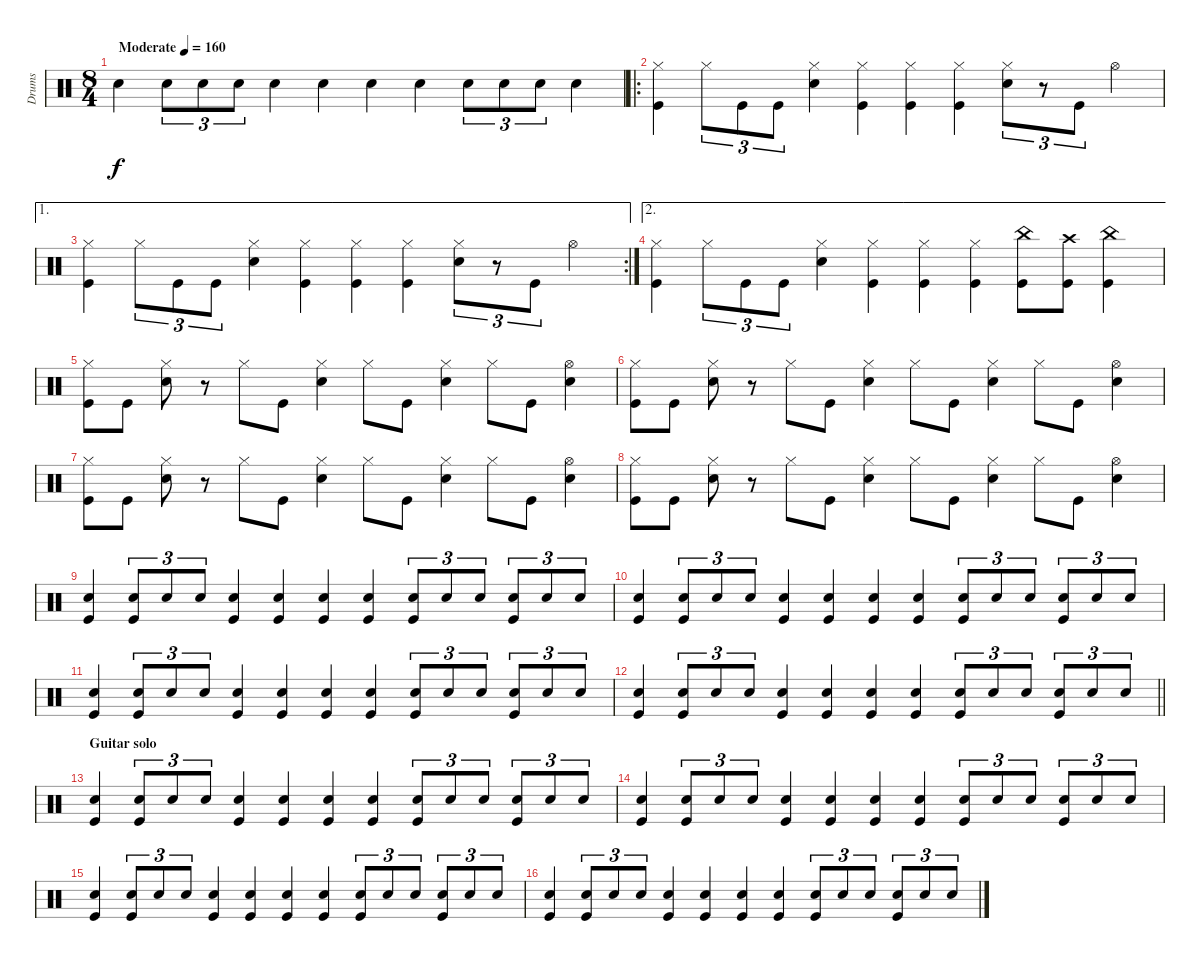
\track ("Drums" "Drums") {instrument percussion}
\staff {score}
\articulation defaults
\ts (8 4)
\tempo (160 "Moderate")
\clef neutral
\ks c "Snare (hit) 2".4{dy f} "Snare (hit) 2".8{tu (3 2)} "Snare (hit) 2".8{tu (3 2)} "Snare (hit) 2".8{tu (3 2)} "Snare (hit) 2".4 "Snare (hit) 2".4 "Snare (hit) 2".4 "Snare (hit) 2".4 "Snare (hit) 2".8{tu (3 2)} "Snare (hit) 2".8{tu (3 2)} "Snare (hit) 2".8{tu (3 2)} "Snare (hit) 2".4
|
\ro
("Kick (hit)" "Hi-Hat (closed)").4 "Hi-Hat (closed)".8{tu (3 2)} "Kick (hit)".8{tu (3 2)} "Kick (hit)".8{tu (3 2)} ("Hi-Hat (closed)" "Snare (hit) 2").4 ("Hi-Hat (closed)" "Kick (hit)").4 ("Kick (hit)" "Hi-Hat (closed)").4 ("Hi-Hat (closed)" "Kick (hit)").4 ("Hi-Hat (closed)" "Snare (hit) 2").8{tu (3 2)} r.8{tu (3 2)} "Kick (hit)".8{tu (3 2)} "Hi-Hat (open)".4 |
\ae 1
\rc 2
("Kick (hit)" "Hi-Hat (closed)").4 "Hi-Hat (closed)".8{tu (3 2)} "Kick (hit)".8{tu (3 2)} "Kick (hit)".8{tu (3 2)} ("Hi-Hat (closed)" "Snare (hit) 2").4 ("Hi-Hat (closed)" "Kick (hit)").4 ("Kick (hit)" "Hi-Hat (closed)").4 ("Hi-Hat (closed)" "Kick (hit)").4 ("Hi-Hat (closed)" "Snare (hit) 2").8{tu (3 2)} r.8{tu (3 2)} "Kick (hit)".8{tu (3 2)} "Hi-Hat (open)".4 |
\ae 2
("Kick (hit)" "Hi-Hat (closed)").4 "Hi-Hat (closed)".8{tu (3 2)} "Kick (hit)".8{tu (3 2)} "Kick (hit)".8{tu (3 2)} ("Hi-Hat (closed)" "Snare (hit) 2").4 ("Hi-Hat (closed)" "Kick (hit)").4 ("Kick (hit)" "Hi-Hat (closed)").4 ("Hi-Hat (closed)" "Kick (hit)").4 ("China (hit)" "Kick (hit)").8 ("Crash high (hit)" "Kick (hit)").8 ("China (hit)" "Kick (hit)").4 |
("Kick (hit)" "Hi-Hat (closed)").8 "Kick (hit)".8 ("Snare (hit) 2" "Hi-Hat (closed)").8 r.8 "Hi-Hat (closed)".8 "Kick (hit)".8 ("Snare (hit) 2" "Hi-Hat (closed)").4 "Hi-Hat (closed)".8 "Kick (hit)".8 ("Snare (hit) 2" "Hi-Hat (closed)").4 "Hi-Hat (closed)".8 "Kick (hit)".8 ("Snare (hit) 2" "Hi-Hat (open)").4 |
("Kick (hit)" "Hi-Hat (closed)").8 "Kick (hit)".8 ("Snare (hit) 2" "Hi-Hat (closed)").8 r.8 "Hi-Hat (closed)".8 "Kick (hit)".8 ("Snare (hit) 2" "Hi-Hat (closed)").4 "Hi-Hat (closed)".8 "Kick (hit)".8 ("Snare (hit) 2" "Hi-Hat (closed)").4 "Hi-Hat (closed)".8 "Kick (hit)".8 ("Snare (hit) 2" "Hi-Hat (open)").4 |
("Kick (hit)" "Hi-Hat (closed)").8 "Kick (hit)".8 ("Snare (hit) 2" "Hi-Hat (closed)").8 r.8 "Hi-Hat (closed)".8 "Kick (hit)".8 ("Snare (hit) 2" "Hi-Hat (closed)").4 "Hi-Hat (closed)".8 "Kick (hit)".8 ("Snare (hit) 2" "Hi-Hat (closed)").4 "Hi-Hat (closed)".8 "Kick (hit)".8 ("Snare (hit) 2" "Hi-Hat (open)").4 |
("Kick (hit)" "Hi-Hat (closed)").8 "Kick (hit)".8 ("Snare (hit) 2" "Hi-Hat (closed)").8 r.8 "Hi-Hat (closed)".8 "Kick (hit)".8 ("Snare (hit) 2" "Hi-Hat (closed)").4 "Hi-Hat (closed)".8 "Kick (hit)".8 ("Snare (hit) 2" "Hi-Hat (closed)").4 "Hi-Hat (closed)".8 "Kick (hit)".8 ("Snare (hit) 2" "Hi-Hat (open)").4 |
("Snare (hit) 2" "Kick (hit)").4 ("Snare (hit) 2" "Kick (hit)").8{tu (3 2)} "Snare (hit) 2".8{tu (3 2)} "Snare (hit) 2".8{tu (3 2)} ("Snare (hit) 2" "Kick (hit)").4 ("Snare (hit) 2" "Kick (hit)").4 ("Snare (hit) 2" "Kick (hit)").4 ("Snare (hit) 2" "Kick (hit)").4 ("Snare (hit) 2" "Kick (hit)").8{tu (3 2)} "Snare (hit) 2".8{tu (3 2)} "Snare (hit) 2".8{tu (3 2)} ("Snare (hit) 2" "Kick (hit)").8{tu (3 2)} "Snare (hit) 2".8{tu (3 2)} "Snare (hit) 2".8{tu (3 2)} |
("Snare (hit) 2" "Kick (hit)").4 ("Snare (hit) 2" "Kick (hit)").8{tu (3 2)} "Snare (hit) 2".8{tu (3 2)} "Snare (hit) 2".8{tu (3 2)} ("Snare (hit) 2" "Kick (hit)").4 ("Snare (hit) 2" "Kick (hit)").4 ("Snare (hit) 2" "Kick (hit)").4 ("Snare (hit) 2" "Kick (hit)").4 ("Snare (hit) 2" "Kick (hit)").8{tu (3 2)} "Snare (hit) 2".8{tu (3 2)} "Snare (hit) 2".8{tu (3 2)} ("Snare (hit) 2" "Kick (hit)").8{tu (3 2)} "Snare (hit) 2".8{tu (3 2)} "Snare (hit) 2".8{tu (3 2)} |
("Snare (hit) 2" "Kick (hit)").4 ("Snare (hit) 2" "Kick (hit)").8{tu (3 2)} "Snare (hit) 2".8{tu (3 2)} "Snare (hit) 2".8{tu (3 2)} ("Snare (hit) 2" "Kick (hit)").4 ("Snare (hit) 2" "Kick (hit)").4 ("Snare (hit) 2" "Kick (hit)").4 ("Snare (hit) 2" "Kick (hit)").4 ("Snare (hit) 2" "Kick (hit)").8{tu (3 2)} "Snare (hit) 2".8{tu (3 2)} "Snare (hit) 2".8{tu (3 2)} ("Snare (hit) 2" "Kick (hit)").8{tu (3 2)} "Snare (hit) 2".8{tu (3 2)} "Snare (hit) 2".8{tu (3 2)} |
\barLineRight lightlight
("Snare (hit) 2" "Kick (hit)").4 ("Snare (hit) 2" "Kick (hit)").8{tu (3 2)} "Snare (hit) 2".8{tu (3 2)} "Snare (hit) 2".8{tu (3 2)} ("Snare (hit) 2" "Kick (hit)").4 ("Snare (hit) 2" "Kick (hit)").4 ("Snare (hit) 2" "Kick (hit)").4 ("Snare (hit) 2" "Kick (hit)").4 ("Snare (hit) 2" "Kick (hit)").8{tu (3 2)} "Snare (hit) 2".8{tu (3 2)} "Snare (hit) 2".8{tu (3 2)} ("Snare (hit) 2" "Kick (hit)").8{tu (3 2)} "Snare (hit) 2".8{tu (3 2)} "Snare (hit) 2".8{tu (3 2)} |
\section ("" "Guitar solo")
("Snare (hit) 2" "Kick (hit)").4 ("Snare (hit) 2" "Kick (hit)").8{tu (3 2)} "Snare (hit) 2".8{tu (3 2)} "Snare (hit) 2".8{tu (3 2)} ("Snare (hit) 2" "Kick (hit)").4 ("Snare (hit) 2" "Kick (hit)").4 ("Snare (hit) 2" "Kick (hit)").4 ("Snare (hit) 2" "Kick (hit)").4 ("Snare (hit) 2" "Kick (hit)").8{tu (3 2)} "Snare (hit) 2".8{tu (3 2)} "Snare (hit) 2".8{tu (3 2)} ("Snare (hit) 2" "Kick (hit)").8{tu (3 2)} "Snare (hit) 2".8{tu (3 2)} "Snare (hit) 2".8{tu (3 2)} |
("Snare (hit) 2" "Kick (hit)").4 ("Snare (hit) 2" "Kick (hit)").8{tu (3 2)} "Snare (hit) 2".8{tu (3 2)} "Snare (hit) 2".8{tu (3 2)} ("Snare (hit) 2" "Kick (hit)").4 ("Snare (hit) 2" "Kick (hit)").4 ("Snare (hit) 2" "Kick (hit)").4 ("Snare (hit) 2" "Kick (hit)").4 ("Snare (hit) 2" "Kick (hit)").8{tu (3 2)} "Snare (hit) 2".8{tu (3 2)} "Snare (hit) 2".8{tu (3 2)} ("Snare (hit) 2" "Kick (hit)").8{tu (3 2)} "Snare (hit) 2".8{tu (3 2)} "Snare (hit) 2".8{tu (3 2)} |
("Snare (hit) 2" "Kick (hit)").4 ("Snare (hit) 2" "Kick (hit)").8{tu (3 2)} "Snare (hit) 2".8{tu (3 2)} "Snare (hit) 2".8{tu (3 2)} ("Snare (hit) 2" "Kick (hit)").4 ("Snare (hit) 2" "Kick (hit)").4 ("Snare (hit) 2" "Kick (hit)").4 ("Snare (hit) 2" "Kick (hit)").4 ("Snare (hit) 2" "Kick (hit)").8{tu (3 2)} "Snare (hit) 2".8{tu (3 2)} "Snare (hit) 2".8{tu (3 2)} ("Snare (hit) 2" "Kick (hit)").8{tu (3 2)} "Snare (hit) 2".8{tu (3 2)} "Snare (hit) 2".8{tu (3 2)} |
("Snare (hit) 2" "Kick (hit)").4 ("Snare (hit) 2" "Kick (hit)").8{tu (3 2)} "Snare (hit) 2".8{tu (3 2)} "Snare (hit) 2".8{tu (3 2)} ("Snare (hit) 2" "Kick (hit)").4 ("Snare (hit) 2" "Kick (hit)").4 ("Snare (hit) 2" "Kick (hit)").4 ("Snare (hit) 2" "Kick (hit)").4 ("Snare (hit) 2" "Kick (hit)").8{tu (3 2)} "Snare (hit) 2".8{tu (3 2)} "Snare (hit) 2".8{tu (3 2)} ("Snare (hit) 2" "Kick (hit)").8{tu (3 2)} "Snare (hit) 2".8{tu (3 2)} "Snare (hit) 2".8{tu (3 2)}
